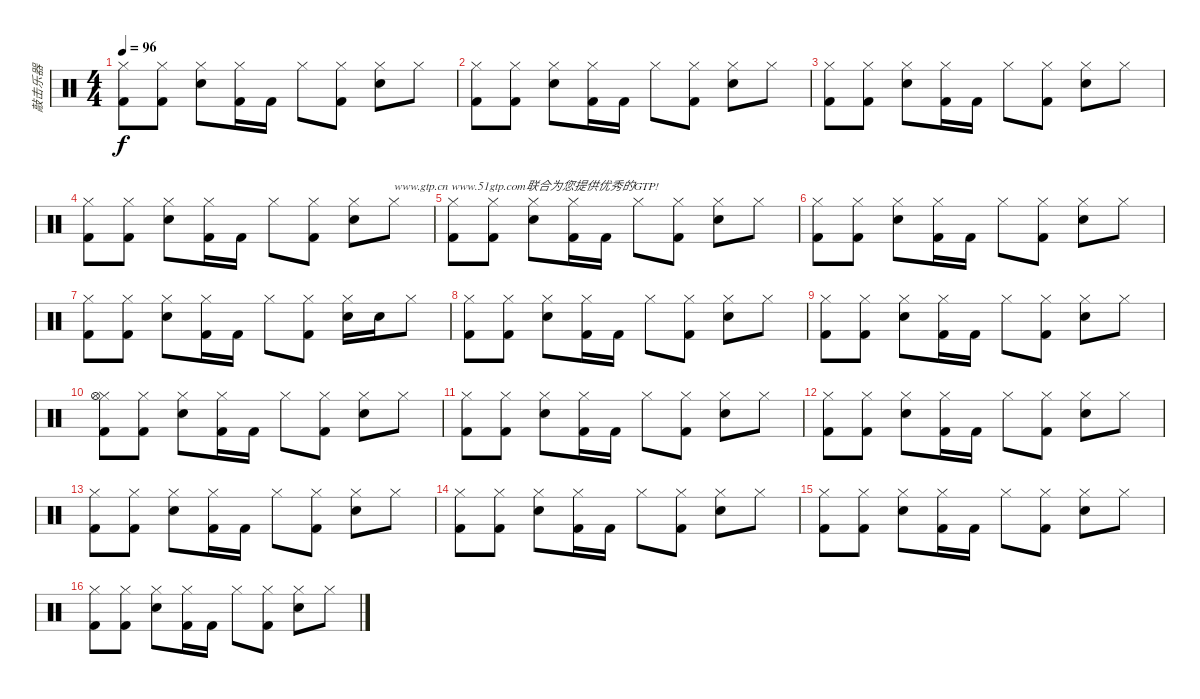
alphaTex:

\track ("敲击乐器" "敲击乐器") {instrument percussion}
\staff {score}
\articulation defaults
\ts (4 4)
\tempo 96
\clef neutral
\ks c
("Hi-Hat (closed)" "Kick (hit) 2").8{dy f} ("Hi-Hat (closed)" "Kick (hit) 2").8 ("Hi-Hat (closed)" "Electric Snare (hit)").8 ("Hi-Hat (closed)" "Kick (hit) 2").16 "Kick (hit) 2".16 "Hi-Hat (closed)".8 ("Hi-Hat (closed)" "Kick (hit) 2").8 ("Hi-Hat (closed)" "Electric Snare (hit)").8 "Hi-Hat (closed)".8 |
("Hi-Hat (closed)" "Kick (hit) 2").8 ("Hi-Hat (closed)" "Kick (hit) 2").8 ("Hi-Hat (closed)" "Electric Snare (hit)").8 ("Hi-Hat (closed)" "Kick (hit) 2").16 "Kick (hit) 2".16 "Hi-Hat (closed)".8 ("Hi-Hat (closed)" "Kick (hit) 2").8 ("Hi-Hat (closed)" "Electric Snare (hit)").8 "Hi-Hat (closed)".8 |
("Hi-Hat (closed)" "Kick (hit) 2").8 ("Hi-Hat (closed)" "Kick (hit) 2").8 ("Hi-Hat (closed)" "Electric Snare (hit)").8 ("Hi-Hat (closed)" "Kick (hit) 2").16 "Kick (hit) 2".16 "Hi-Hat (closed)".8 ("Hi-Hat (closed)" "Kick (hit) 2").8 ("Hi-Hat (closed)" "Electric Snare (hit)").8 "Hi-Hat (closed)".8 |
("Hi-Hat (closed)" "Kick (hit) 2").8 ("Hi-Hat (closed)" "Kick (hit) 2").8 ("Hi-Hat (closed)" "Electric Snare (hit)").8 ("Hi-Hat (closed)" "Kick (hit) 2").16 "Kick (hit) 2".16 "Hi-Hat (closed)".8 ("Hi-Hat (closed)" "Kick (hit) 2").8 ("Hi-Hat (closed)" "Electric Snare (hit)").8 "Hi-Hat (closed)".8{txt "www.gtp.cn www.51gtp.com联合为您提供优秀的GTP!"} |
("Hi-Hat (closed)" "Kick (hit) 2").8 ("Hi-Hat (closed)" "Kick (hit) 2").8 ("Hi-Hat (closed)" "Electric Snare (hit)").8 ("Hi-Hat (closed)" "Kick (hit) 2").16 "Kick (hit) 2".16 "Hi-Hat (closed)".8 ("Hi-Hat (closed)" "Kick (hit) 2").8 ("Hi-Hat (closed)" "Electric Snare (hit)").8 "Hi-Hat (closed)".8 |
("Hi-Hat (closed)" "Kick (hit) 2").8 ("Hi-Hat (closed)" "Kick (hit) 2").8 ("Hi-Hat (closed)" "Electric Snare (hit)").8 ("Hi-Hat (closed)" "Kick (hit) 2").16 "Kick (hit) 2".16 "Hi-Hat (closed)".8 ("Hi-Hat (closed)" "Kick (hit) 2").8 ("Hi-Hat (closed)" "Electric Snare (hit)").8 "Hi-Hat (closed)".8 |
("Hi-Hat (closed)" "Kick (hit) 2").8 ("Hi-Hat (closed)" "Kick (hit) 2").8 ("Hi-Hat (closed)" "Electric Snare (hit)").8 ("Hi-Hat (closed)" "Kick (hit) 2").16 "Kick (hit) 2".16 "Hi-Hat (closed)".8 ("Hi-Hat (closed)" "Kick (hit) 2").8 ("Hi-Hat (closed)" "Electric Snare (hit)").16 "Electric Snare (hit)".16 "Hi-Hat (closed)".8 |
("Hi-Hat (closed)" "Kick (hit) 2").8 ("Hi-Hat (closed)" "Kick (hit) 2").8 ("Hi-Hat (closed)" "Electric Snare (hit)").8 ("Hi-Hat (closed)" "Kick (hit) 2").16 "Kick (hit) 2".16 "Hi-Hat (closed)".8 ("Hi-Hat (closed)" "Kick (hit) 2").8 ("Hi-Hat (closed)" "Electric Snare (hit)").8 "Hi-Hat (closed)".8 |
("Hi-Hat (closed)" "Kick (hit) 2").8 ("Hi-Hat (closed)" "Kick (hit) 2").8 ("Hi-Hat (closed)" "Electric Snare (hit)").8 ("Hi-Hat (closed)" "Kick (hit) 2").16 "Kick (hit) 2".16 "Hi-Hat (closed)".8 ("Hi-Hat (closed)" "Kick (hit) 2").8 ("Hi-Hat (closed)" "Electric Snare (hit)").8 "Hi-Hat (closed)".8 |
("Hi-Hat (closed)" "Kick (hit) 2" "Hi-Hat (open)").8 ("Hi-Hat (closed)" "Kick (hit) 2").8 ("Hi-Hat (closed)" "Electric Snare (hit)").8 ("Hi-Hat (closed)" "Kick (hit) 2").16 "Kick (hit) 2".16 "Hi-Hat (closed)".8 ("Hi-Hat (closed)" "Kick (hit) 2").8 ("Hi-Hat (closed)" "Electric Snare (hit)").8 "Hi-Hat (closed)".8 |
("Hi-Hat (closed)" "Kick (hit) 2").8 ("Hi-Hat (closed)" "Kick (hit) 2").8 ("Hi-Hat (closed)" "Electric Snare (hit)").8 ("Hi-Hat (closed)" "Kick (hit) 2").16 "Kick (hit) 2".16 "Hi-Hat (closed)".8 ("Hi-Hat (closed)" "Kick (hit) 2").8 ("Hi-Hat (closed)" "Electric Snare (hit)").8 "Hi-Hat (closed)".8 |
("Hi-Hat (closed)" "Kick (hit) 2").8 ("Hi-Hat (closed)" "Kick (hit) 2").8 ("Hi-Hat (closed)" "Electric Snare (hit)").8 ("Hi-Hat (closed)" "Kick (hit) 2").16 "Kick (hit) 2".16 "Hi-Hat (closed)".8 ("Hi-Hat (closed)" "Kick (hit) 2").8 ("Hi-Hat (closed)" "Electric Snare (hit)").8 "Hi-Hat (closed)".8 |
("Hi-Hat (closed)" "Kick (hit) 2").8 ("Hi-Hat (closed)" "Kick (hit) 2").8 ("Hi-Hat (closed)" "Electric Snare (hit)").8 ("Hi-Hat (closed)" "Kick (hit) 2").16 "Kick (hit) 2".16 "Hi-Hat (closed)".8 ("Hi-Hat (closed)" "Kick (hit) 2").8 ("Hi-Hat (closed)" "Electric Snare (hit)").8 "Hi-Hat (closed)".8 |
("Hi-Hat (closed)" "Kick (hit) 2").8 ("Hi-Hat (closed)" "Kick (hit) 2").8 ("Hi-Hat (closed)" "Electric Snare (hit)").8 ("Hi-Hat (closed)" "Kick (hit) 2").16 "Kick (hit) 2".16 "Hi-Hat (closed)".8 ("Hi-Hat (closed)" "Kick (hit) 2").8 ("Hi-Hat (closed)" "Electric Snare (hit)").8 "Hi-Hat (closed)".8 |
("Hi-Hat (closed)" "Kick (hit) 2").8 ("Hi-Hat (closed)" "Kick (hit) 2").8 ("Hi-Hat (closed)" "Electric Snare (hit)").8 ("Hi-Hat (closed)" "Kick (hit) 2").16 "Kick (hit) 2".16 "Hi-Hat (closed)".8 ("Hi-Hat (closed)" "Kick (hit) 2").8 ("Hi-Hat (closed)" "Electric Snare (hit)").8 "Hi-Hat (closed)".8 |
("Hi-Hat (closed)" "Kick (hit) 2").8 ("Hi-Hat (closed)" "Kick (hit) 2").8 ("Hi-Hat (closed)" "Electric Snare (hit)").8 ("Hi-Hat (closed)" "Kick (hit) 2").16 "Kick (hit) 2".16 "Hi-Hat (closed)".8 ("Hi-Hat (closed)" "Kick (hit) 2").8 ("Hi-Hat (closed)" "Electric Snare (hit)").8 "Hi-Hat (closed)".8
